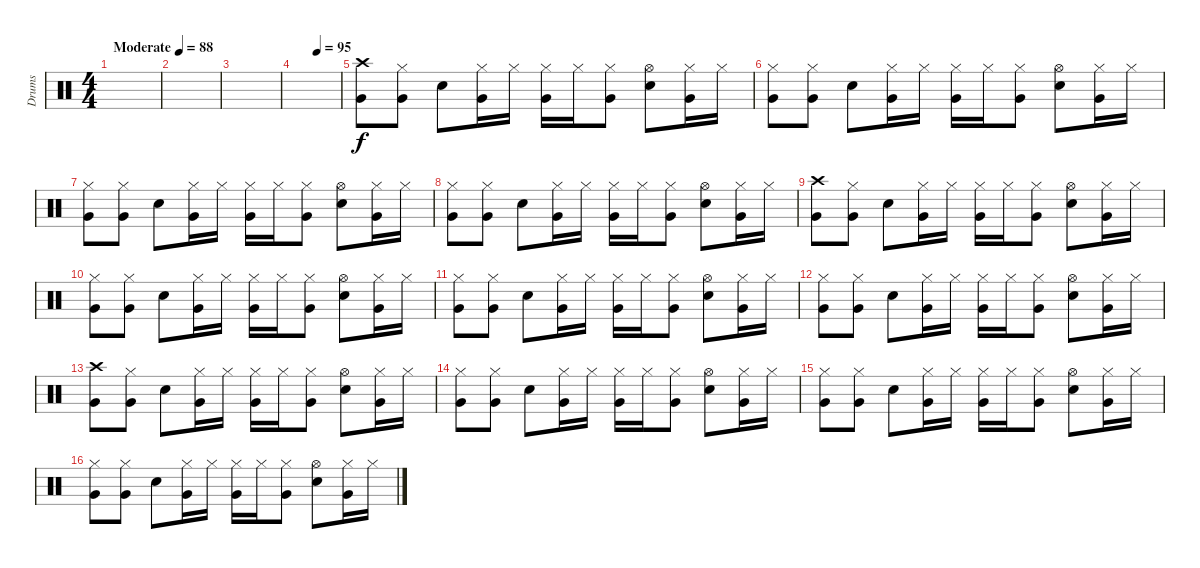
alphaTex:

\track ("Drums" "Drums") {instrument percussion}
\staff {score}
\articulation defaults
\ts (4 4)
\tempo (88 "Moderate")
\clef neutral
\ks c
|
|
|
\tempo (95 0.5)
|
("Crash high (hit)" "Very Low Tom (hit)").8 ("Hi-Hat (closed)" "Very Low Tom (hit)").8 "Electric Snare (hit)".8 ("Hi-Hat (closed)" "Very Low Tom (hit)").16 "Hi-Hat (closed)".16 ("Hi-Hat (closed)" "Very Low Tom (hit)").16 "Hi-Hat (closed)".16 ("Hi-Hat (closed)" "Very Low Tom (hit)").8 ("Hi-Hat (open)" "Electric Snare (hit)").8 ("Hi-Hat (closed)" "Very Low Tom (hit)").16 "Hi-Hat (closed)".16 |
("Hi-Hat (closed)" "Very Low Tom (hit)").8 ("Hi-Hat (closed)" "Very Low Tom (hit)").8 "Electric Snare (hit)".8 ("Hi-Hat (closed)" "Very Low Tom (hit)").16 "Hi-Hat (closed)".16 ("Hi-Hat (closed)" "Very Low Tom (hit)").16 "Hi-Hat (closed)".16 ("Hi-Hat (closed)" "Very Low Tom (hit)").8 ("Hi-Hat (open)" "Electric Snare (hit)").8 ("Hi-Hat (closed)" "Very Low Tom (hit)").16 "Hi-Hat (closed)".16 |
("Hi-Hat (closed)" "Very Low Tom (hit)").8 ("Hi-Hat (closed)" "Very Low Tom (hit)").8 "Electric Snare (hit)".8 ("Hi-Hat (closed)" "Very Low Tom (hit)").16 "Hi-Hat (closed)".16 ("Hi-Hat (closed)" "Very Low Tom (hit)").16 "Hi-Hat (closed)".16 ("Hi-Hat (closed)" "Very Low Tom (hit)").8 ("Hi-Hat (open)" "Electric Snare (hit)").8 ("Hi-Hat (closed)" "Very Low Tom (hit)").16 "Hi-Hat (closed)".16 |
("Hi-Hat (closed)" "Very Low Tom (hit)").8 ("Hi-Hat (closed)" "Very Low Tom (hit)").8 "Electric Snare (hit)".8 ("Hi-Hat (closed)" "Very Low Tom (hit)").16 "Hi-Hat (closed)".16 ("Hi-Hat (closed)" "Very Low Tom (hit)").16 "Hi-Hat (closed)".16 ("Hi-Hat (closed)" "Very Low Tom (hit)").8 ("Hi-Hat (open)" "Electric Snare (hit)").8 ("Hi-Hat (closed)" "Very Low Tom (hit)").16 "Hi-Hat (closed)".16 |
("Crash high (hit)" "Very Low Tom (hit)").8 ("Hi-Hat (closed)" "Very Low Tom (hit)").8 "Electric Snare (hit)".8 ("Hi-Hat (closed)" "Very Low Tom (hit)").16 "Hi-Hat (closed)".16 ("Hi-Hat (closed)" "Very Low Tom (hit)").16 "Hi-Hat (closed)".16 ("Hi-Hat (closed)" "Very Low Tom (hit)").8 ("Hi-Hat (open)" "Electric Snare (hit)").8 ("Hi-Hat (closed)" "Very Low Tom (hit)").16 "Hi-Hat (closed)".16 |
("Hi-Hat (closed)" "Very Low Tom (hit)").8 ("Hi-Hat (closed)" "Very Low Tom (hit)").8 "Electric Snare (hit)".8 ("Hi-Hat (closed)" "Very Low Tom (hit)").16 "Hi-Hat (closed)".16 ("Hi-Hat (closed)" "Very Low Tom (hit)").16 "Hi-Hat (closed)".16 ("Hi-Hat (closed)" "Very Low Tom (hit)").8 ("Hi-Hat (open)" "Electric Snare (hit)").8 ("Hi-Hat (closed)" "Very Low Tom (hit)").16 "Hi-Hat (closed)".16 |
("Hi-Hat (closed)" "Very Low Tom (hit)").8 ("Hi-Hat (closed)" "Very Low Tom (hit)").8 "Electric Snare (hit)".8 ("Hi-Hat (closed)" "Very Low Tom (hit)").16 "Hi-Hat (closed)".16 ("Hi-Hat (closed)" "Very Low Tom (hit)").16 "Hi-Hat (closed)".16 ("Hi-Hat (closed)" "Very Low Tom (hit)").8 ("Hi-Hat (open)" "Electric Snare (hit)").8 ("Hi-Hat (closed)" "Very Low Tom (hit)").16 "Hi-Hat (closed)".16 |
("Hi-Hat (closed)" "Very Low Tom (hit)").8 ("Hi-Hat (closed)" "Very Low Tom (hit)").8 "Electric Snare (hit)".8 ("Hi-Hat (closed)" "Very Low Tom (hit)").16 "Hi-Hat (closed)".16 ("Hi-Hat (closed)" "Very Low Tom (hit)").16 "Hi-Hat (closed)".16 ("Hi-Hat (closed)" "Very Low Tom (hit)").8 ("Hi-Hat (open)" "Electric Snare (hit)").8 ("Hi-Hat (closed)" "Very Low Tom (hit)").16 "Hi-Hat (closed)".16 |
("Crash high (hit)" "Very Low Tom (hit)").8 ("Hi-Hat (closed)" "Very Low Tom (hit)").8 "Electric Snare (hit)".8 ("Hi-Hat (closed)" "Very Low Tom (hit)").16 "Hi-Hat (closed)".16 ("Hi-Hat (closed)" "Very Low Tom (hit)").16 "Hi-Hat (closed)".16 ("Hi-Hat (closed)" "Very Low Tom (hit)").8 ("Hi-Hat (open)" "Electric Snare (hit)").8 ("Hi-Hat (closed)" "Very Low Tom (hit)").16 "Hi-Hat (closed)".16 |
("Hi-Hat (closed)" "Very Low Tom (hit)").8 ("Hi-Hat (closed)" "Very Low Tom (hit)").8 "Electric Snare (hit)".8 ("Hi-Hat (closed)" "Very Low Tom (hit)").16 "Hi-Hat (closed)".16 ("Hi-Hat (closed)" "Very Low Tom (hit)").16 "Hi-Hat (closed)".16 ("Hi-Hat (closed)" "Very Low Tom (hit)").8 ("Hi-Hat (open)" "Electric Snare (hit)").8 ("Hi-Hat (closed)" "Very Low Tom (hit)").16 "Hi-Hat (closed)".16 |
("Hi-Hat (closed)" "Very Low Tom (hit)").8 ("Hi-Hat (closed)" "Very Low Tom (hit)").8 "Electric Snare (hit)".8 ("Hi-Hat (closed)" "Very Low Tom (hit)").16 "Hi-Hat (closed)".16 ("Hi-Hat (closed)" "Very Low Tom (hit)").16 "Hi-Hat (closed)".16 ("Hi-Hat (closed)" "Very Low Tom (hit)").8 ("Hi-Hat (open)" "Electric Snare (hit)").8 ("Hi-Hat (closed)" "Very Low Tom (hit)").16 "Hi-Hat (closed)".16 |
("Hi-Hat (closed)" "Very Low Tom (hit)").8 ("Hi-Hat (closed)" "Very Low Tom (hit)").8 "Electric Snare (hit)".8 ("Hi-Hat (closed)" "Very Low Tom (hit)").16 "Hi-Hat (closed)".16 ("Hi-Hat (closed)" "Very Low Tom (hit)").16 "Hi-Hat (closed)".16 ("Hi-Hat (closed)" "Very Low Tom (hit)").8 ("Hi-Hat (open)" "Electric Snare (hit)").8 ("Hi-Hat (closed)" "Very Low Tom (hit)").16 "Hi-Hat (closed)".16
